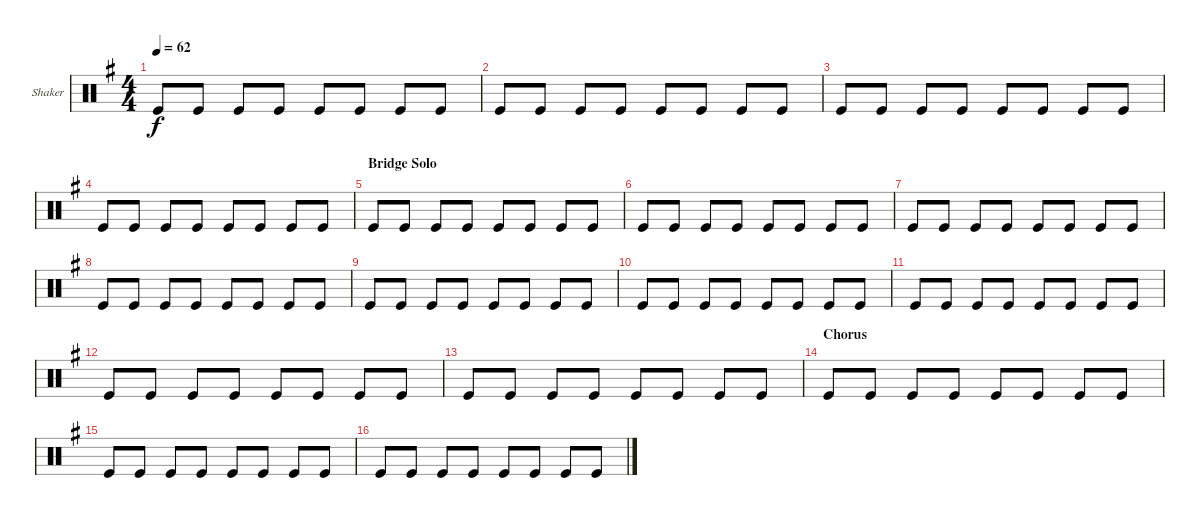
\defaultSystemsLayout 4
\bracketExtendMode groupsimilarinstruments
\firstSystemTrackNameOrientation horizontal
\otherSystemsTrackNameOrientation horizontal
\track ("Shaker" "Shaker") {mute instrument percussion}
\staff {score}
\articulation defaults
\ts (4 4)
\tempo 62
\clef neutral
\scale
0.333333
\ks g "Kick (hit)".8{dy f} "Kick (hit)".8 "Kick (hit)".8 "Kick (hit)".8 "Kick (hit)".8 "Kick (hit)".8 "Kick (hit)".8 "Kick (hit)".8
|
\scale
0.333333 "Kick (hit)".8 "Kick (hit)".8 "Kick (hit)".8 "Kick (hit)".8 "Kick (hit)".8 "Kick (hit)".8 "Kick (hit)".8 "Kick (hit)".8 |
\scale
0.333333 "Kick (hit)".8 "Kick (hit)".8 "Kick (hit)".8 "Kick (hit)".8 "Kick (hit)".8 "Kick (hit)".8 "Kick (hit)".8 "Kick (hit)".8 |
\scale
0.333333 "Kick (hit)".8 "Kick (hit)".8 "Kick (hit)".8 "Kick (hit)".8 "Kick (hit)".8 "Kick (hit)".8 "Kick (hit)".8 "Kick (hit)".8 |
\section ("" "Bridge Solo")
\scale
0.333333 "Kick (hit)".8 "Kick (hit)".8 "Kick (hit)".8 "Kick (hit)".8 "Kick (hit)".8 "Kick (hit)".8 "Kick (hit)".8 "Kick (hit)".8 |
\scale
0.333333 "Kick (hit)".8 "Kick (hit)".8 "Kick (hit)".8 "Kick (hit)".8 "Kick (hit)".8 "Kick (hit)".8 "Kick (hit)".8 "Kick (hit)".8 |
\scale
0.333333 "Kick (hit)".8 "Kick (hit)".8 "Kick (hit)".8 "Kick (hit)".8 "Kick (hit)".8 "Kick (hit)".8 "Kick (hit)".8 "Kick (hit)".8 |
\scale
0.333333 "Kick (hit)".8 "Kick (hit)".8 "Kick (hit)".8 "Kick (hit)".8 "Kick (hit)".8 "Kick (hit)".8 "Kick (hit)".8 "Kick (hit)".8 |
\scale
0.333333 "Kick (hit)".8 "Kick (hit)".8 "Kick (hit)".8 "Kick (hit)".8 "Kick (hit)".8 "Kick (hit)".8 "Kick (hit)".8 "Kick (hit)".8 |
\scale
0.333333 "Kick (hit)".8 "Kick (hit)".8 "Kick (hit)".8 "Kick (hit)".8 "Kick (hit)".8 "Kick (hit)".8 "Kick (hit)".8 "Kick (hit)".8 |
\scale
0.333333 "Kick (hit)".8 "Kick (hit)".8 "Kick (hit)".8 "Kick (hit)".8 "Kick (hit)".8 "Kick (hit)".8 "Kick (hit)".8 "Kick (hit)".8 |
\scale
0.333333 "Kick (hit)".8 "Kick (hit)".8 "Kick (hit)".8 "Kick (hit)".8 "Kick (hit)".8 "Kick (hit)".8 "Kick (hit)".8 "Kick (hit)".8 |
\scale
0.333333 "Kick (hit)".8 "Kick (hit)".8 "Kick (hit)".8 "Kick (hit)".8 "Kick (hit)".8 "Kick (hit)".8 "Kick (hit)".8 "Kick (hit)".8 |
\section ("" "Chorus")
\scale
0.333333 "Kick (hit)".8 "Kick (hit)".8 "Kick (hit)".8 "Kick (hit)".8 "Kick (hit)".8 "Kick (hit)".8 "Kick (hit)".8 "Kick (hit)".8 |
\scale
0.333333 "Kick (hit)".8 "Kick (hit)".8 "Kick (hit)".8 "Kick (hit)".8 "Kick (hit)".8 "Kick (hit)".8 "Kick (hit)".8 "Kick (hit)".8 |
\scale
0.333333 "Kick (hit)".8 "Kick (hit)".8 "Kick (hit)".8 "Kick (hit)".8 "Kick (hit)".8 "Kick (hit)".8 "Kick (hit)".8 "Kick (hit)".8
